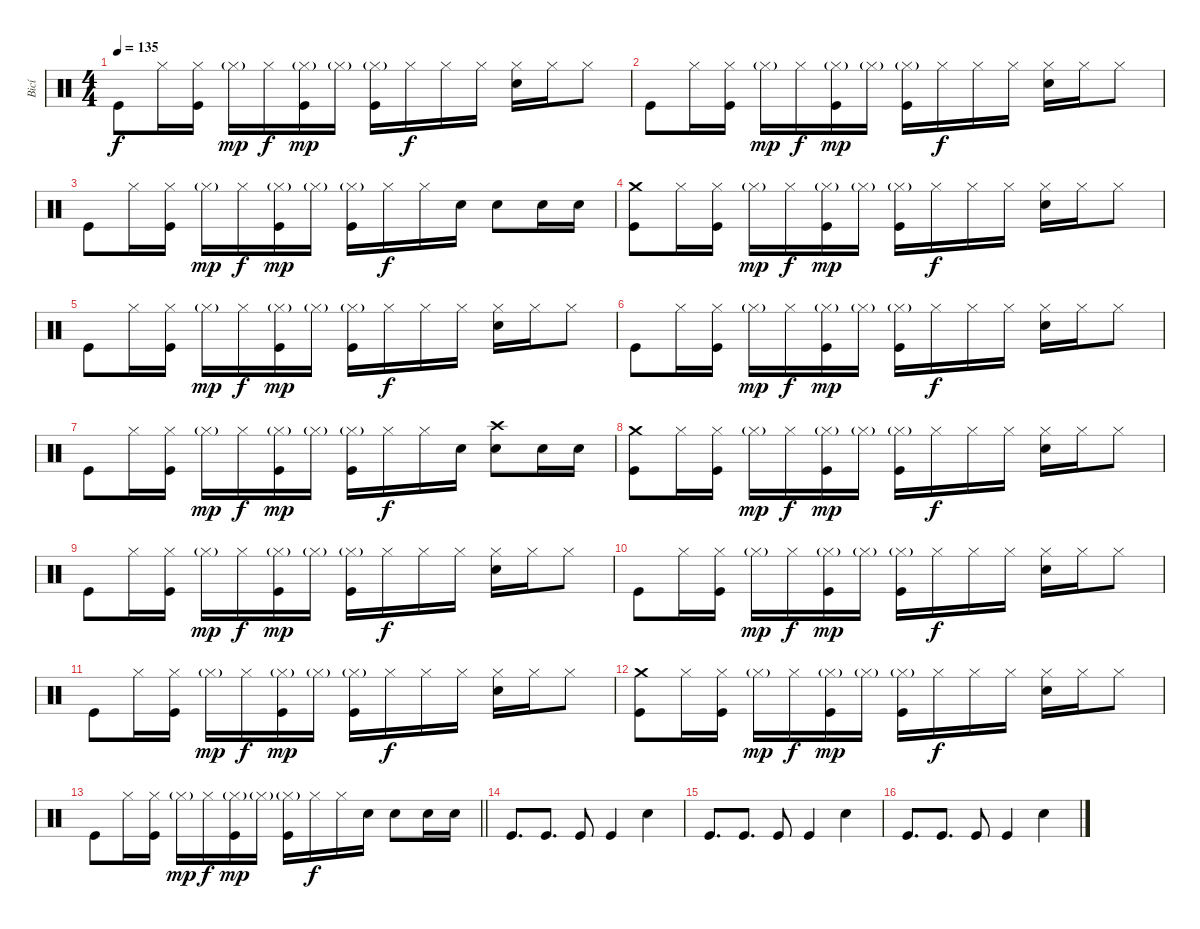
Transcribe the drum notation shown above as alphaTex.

\track ("Bicí" "Bicí") {instrument percussion}
\staff {score}
\articulation defaults
\ts (4 4)
\tempo 135
\clef neutral
\ks c "Kick (hit)".8{dy f} "Hi-Hat (closed)".16
("Hi-Hat (closed)" "Kick (hit)").16 "Hi-Hat (closed)"{g}.16{dy mp} "Hi-Hat (closed)".16{dy f} ("Hi-Hat (closed)"{g} "Kick (hit)").16{dy mp} "Hi-Hat (closed)"{g}.16 ("Hi-Hat (closed)"{g} "Kick (hit)").16 "Hi-Hat (closed)".16{dy f} "Hi-Hat (closed)".16 "Hi-Hat (closed)".16 ("Hi-Hat (closed)" "Electric Snare (hit)").16 "Hi-Hat (closed)".16 "Hi-Hat (closed)".8 |
"Kick (hit)".8 "Hi-Hat (closed)".16 ("Hi-Hat (closed)" "Kick (hit)").16 "Hi-Hat (closed)"{g}.16{dy mp} "Hi-Hat (closed)".16{dy f} ("Hi-Hat (closed)"{g} "Kick (hit)").16{dy mp} "Hi-Hat (closed)"{g}.16 ("Hi-Hat (closed)"{g} "Kick (hit)").16 "Hi-Hat (closed)".16{dy f} "Hi-Hat (closed)".16 "Hi-Hat (closed)".16 ("Hi-Hat (closed)" "Electric Snare (hit)").16 "Hi-Hat (closed)".16 "Hi-Hat (closed)".8 |
"Kick (hit)".8 "Hi-Hat (closed)".16 ("Hi-Hat (closed)" "Kick (hit)").16 "Hi-Hat (closed)"{g}.16{dy mp} "Hi-Hat (closed)".16{dy f} ("Hi-Hat (closed)"{g} "Kick (hit)").16{dy mp} "Hi-Hat (closed)"{g}.16 ("Hi-Hat (closed)"{g} "Kick (hit)").16 "Hi-Hat (closed)".16{dy f} "Hi-Hat (closed)".16 "Electric Snare (hit)".16 "Electric Snare (hit)".8 "Electric Snare (hit)".16 "Electric Snare (hit)".16 |
("Crash medium (hit)" "Kick (hit)").8 "Hi-Hat (closed)".16 ("Hi-Hat (closed)" "Kick (hit)").16 "Hi-Hat (closed)"{g}.16{dy mp} "Hi-Hat (closed)".16{dy f} ("Hi-Hat (closed)"{g} "Kick (hit)").16{dy mp} "Hi-Hat (closed)"{g}.16 ("Hi-Hat (closed)"{g} "Kick (hit)").16 "Hi-Hat (closed)".16{dy f} "Hi-Hat (closed)".16 "Hi-Hat (closed)".16 ("Hi-Hat (closed)" "Electric Snare (hit)").16 "Hi-Hat (closed)".16 "Hi-Hat (closed)".8 |
"Kick (hit)".8 "Hi-Hat (closed)".16 ("Hi-Hat (closed)" "Kick (hit)").16 "Hi-Hat (closed)"{g}.16{dy mp} "Hi-Hat (closed)".16{dy f} ("Hi-Hat (closed)"{g} "Kick (hit)").16{dy mp} "Hi-Hat (closed)"{g}.16 ("Hi-Hat (closed)"{g} "Kick (hit)").16 "Hi-Hat (closed)".16{dy f} "Hi-Hat (closed)".16 "Hi-Hat (closed)".16 ("Hi-Hat (closed)" "Electric Snare (hit)").16 "Hi-Hat (closed)".16 "Hi-Hat (closed)".8 |
"Kick (hit)".8 "Hi-Hat (closed)".16 ("Hi-Hat (closed)" "Kick (hit)").16 "Hi-Hat (closed)"{g}.16{dy mp} "Hi-Hat (closed)".16{dy f} ("Hi-Hat (closed)"{g} "Kick (hit)").16{dy mp} "Hi-Hat (closed)"{g}.16 ("Hi-Hat (closed)"{g} "Kick (hit)").16 "Hi-Hat (closed)".16{dy f} "Hi-Hat (closed)".16 "Hi-Hat (closed)".16 ("Hi-Hat (closed)" "Electric Snare (hit)").16 "Hi-Hat (closed)".16 "Hi-Hat (closed)".8 |
"Kick (hit)".8 "Hi-Hat (closed)".16 ("Hi-Hat (closed)" "Kick (hit)").16 "Hi-Hat (closed)"{g}.16{dy mp} "Hi-Hat (closed)".16{dy f} ("Hi-Hat (closed)"{g} "Kick (hit)").16{dy mp} "Hi-Hat (closed)"{g}.16 ("Hi-Hat (closed)"{g} "Kick (hit)").16 "Hi-Hat (closed)".16{dy f} "Hi-Hat (closed)".16 "Electric Snare (hit)".16 ("Crash high (hit)" "Electric Snare (hit)").8 "Electric Snare (hit)".16 "Electric Snare (hit)".16 |
("Crash medium (hit)" "Kick (hit)").8 "Hi-Hat (closed)".16 ("Hi-Hat (closed)" "Kick (hit)").16 "Hi-Hat (closed)"{g}.16{dy mp} "Hi-Hat (closed)".16{dy f} ("Hi-Hat (closed)"{g} "Kick (hit)").16{dy mp} "Hi-Hat (closed)"{g}.16 ("Hi-Hat (closed)"{g} "Kick (hit)").16 "Hi-Hat (closed)".16{dy f} "Hi-Hat (closed)".16 "Hi-Hat (closed)".16 ("Hi-Hat (closed)" "Electric Snare (hit)").16 "Hi-Hat (closed)".16 "Hi-Hat (closed)".8 |
"Kick (hit)".8 "Hi-Hat (closed)".16 ("Hi-Hat (closed)" "Kick (hit)").16 "Hi-Hat (closed)"{g}.16{dy mp} "Hi-Hat (closed)".16{dy f} ("Hi-Hat (closed)"{g} "Kick (hit)").16{dy mp} "Hi-Hat (closed)"{g}.16 ("Hi-Hat (closed)"{g} "Kick (hit)").16 "Hi-Hat (closed)".16{dy f} "Hi-Hat (closed)".16 "Hi-Hat (closed)".16 ("Hi-Hat (closed)" "Electric Snare (hit)").16 "Hi-Hat (closed)".16 "Hi-Hat (closed)".8 |
"Kick (hit)".8 "Hi-Hat (closed)".16 ("Hi-Hat (closed)" "Kick (hit)").16 "Hi-Hat (closed)"{g}.16{dy mp} "Hi-Hat (closed)".16{dy f} ("Hi-Hat (closed)"{g} "Kick (hit)").16{dy mp} "Hi-Hat (closed)"{g}.16 ("Hi-Hat (closed)"{g} "Kick (hit)").16 "Hi-Hat (closed)".16{dy f} "Hi-Hat (closed)".16 "Hi-Hat (closed)".16 ("Hi-Hat (closed)" "Electric Snare (hit)").16 "Hi-Hat (closed)".16 "Hi-Hat (closed)".8 |
"Kick (hit)".8 "Hi-Hat (closed)".16 ("Hi-Hat (closed)" "Kick (hit)").16 "Hi-Hat (closed)"{g}.16{dy mp} "Hi-Hat (closed)".16{dy f} ("Hi-Hat (closed)"{g} "Kick (hit)").16{dy mp} "Hi-Hat (closed)"{g}.16 ("Hi-Hat (closed)"{g} "Kick (hit)").16 "Hi-Hat (closed)".16{dy f} "Hi-Hat (closed)".16 "Hi-Hat (closed)".16 ("Hi-Hat (closed)" "Electric Snare (hit)").16 "Hi-Hat (closed)".16 "Hi-Hat (closed)".8 |
("Crash medium (hit)" "Kick (hit)").8 "Hi-Hat (closed)".16 ("Hi-Hat (closed)" "Kick (hit)").16 "Hi-Hat (closed)"{g}.16{dy mp} "Hi-Hat (closed)".16{dy f} ("Hi-Hat (closed)"{g} "Kick (hit)").16{dy mp} "Hi-Hat (closed)"{g}.16 ("Hi-Hat (closed)"{g} "Kick (hit)").16 "Hi-Hat (closed)".16{dy f} "Hi-Hat (closed)".16 "Hi-Hat (closed)".16 ("Hi-Hat (closed)" "Electric Snare (hit)").16 "Hi-Hat (closed)".16 "Hi-Hat (closed)".8 |
\barLineRight lightlight "Kick (hit)".8 "Hi-Hat (closed)".16
("Hi-Hat (closed)" "Kick (hit)").16 "Hi-Hat (closed)"{g}.16{dy mp} "Hi-Hat (closed)".16{dy f} ("Hi-Hat (closed)"{g} "Kick (hit)").16{dy mp} "Hi-Hat (closed)"{g}.16 ("Hi-Hat (closed)"{g} "Kick (hit)").16 "Hi-Hat (closed)".16{dy f} "Hi-Hat (closed)".16 "Electric Snare (hit)".16 "Electric Snare (hit)".8 "Electric Snare (hit)".16 "Electric Snare (hit)".16 |
\section ("" "")
"Kick (hit)".8{d} "Kick (hit)".8{d} "Kick (hit)".8 "Kick (hit)".4 "Electric Snare (hit)".4 |
"Kick (hit)".8{d} "Kick (hit)".8{d} "Kick (hit)".8 "Kick (hit)".4 "Electric Snare (hit)".4 |
"Kick (hit)".8{d} "Kick (hit)".8{d} "Kick (hit)".8 "Kick (hit)".4 "Electric Snare (hit)".4
